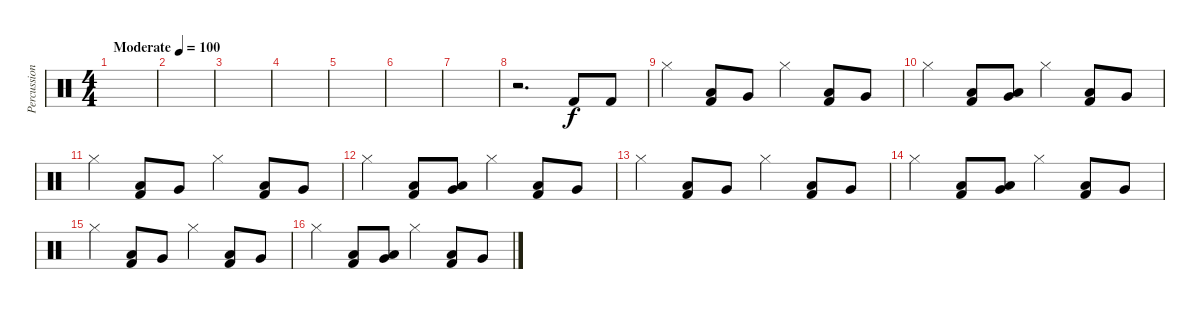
\track ("Percussion" "Percussion") {instrument percussion}
\staff {score}
\articulation defaults
\ts (4 4)
\tempo (100 "Moderate")
\clef neutral
\ks c
|
|
|
|
|
|
|
r.2{d} "Kick (hit) 2".8 "Kick (hit) 2".8 |
"Hi-Hat (closed)".4 ("Low Tom (hit)" "Kick (hit) 2").8 "Very Low Tom (hit)".8 "Hi-Hat (closed)".4 ("Low Tom (hit)" "Kick (hit) 2").8 "Very Low Tom (hit)".8 |
"Hi-Hat (closed)".4 ("Low Tom (hit)" "Kick (hit) 2").8 ("Very Low Tom (hit)" "Low Floor Tom (hit)").8 "Hi-Hat (closed)".4 ("Low Tom (hit)" "Kick (hit) 2").8 "Very Low Tom (hit)".8 |
"Hi-Hat (closed)".4 ("Low Tom (hit)" "Kick (hit) 2").8 "Very Low Tom (hit)".8 "Hi-Hat (closed)".4 ("Low Tom (hit)" "Kick (hit) 2").8 "Very Low Tom (hit)".8 |
"Hi-Hat (closed)".4 ("Low Tom (hit)" "Kick (hit) 2").8 ("Very Low Tom (hit)" "Low Floor Tom (hit)").8 "Hi-Hat (closed)".4 ("Low Tom (hit)" "Kick (hit) 2").8 "Very Low Tom (hit)".8 |
"Hi-Hat (closed)".4 ("Low Tom (hit)" "Kick (hit) 2").8 "Very Low Tom (hit)".8 "Hi-Hat (closed)".4 ("Low Tom (hit)" "Kick (hit) 2").8 "Very Low Tom (hit)".8 |
"Hi-Hat (closed)".4 ("Low Tom (hit)" "Kick (hit) 2").8 ("Very Low Tom (hit)" "Low Floor Tom (hit)").8 "Hi-Hat (closed)".4 ("Low Tom (hit)" "Kick (hit) 2").8 "Very Low Tom (hit)".8 |
"Hi-Hat (closed)".4 ("Low Tom (hit)" "Kick (hit) 2").8 "Very Low Tom (hit)".8 "Hi-Hat (closed)".4 ("Low Tom (hit)" "Kick (hit) 2").8 "Very Low Tom (hit)".8 |
"Hi-Hat (closed)".4 ("Low Tom (hit)" "Kick (hit) 2").8 ("Very Low Tom (hit)" "Low Floor Tom (hit)").8 "Hi-Hat (closed)".4 ("Low Tom (hit)" "Kick (hit) 2").8 "Very Low Tom (hit)".8
